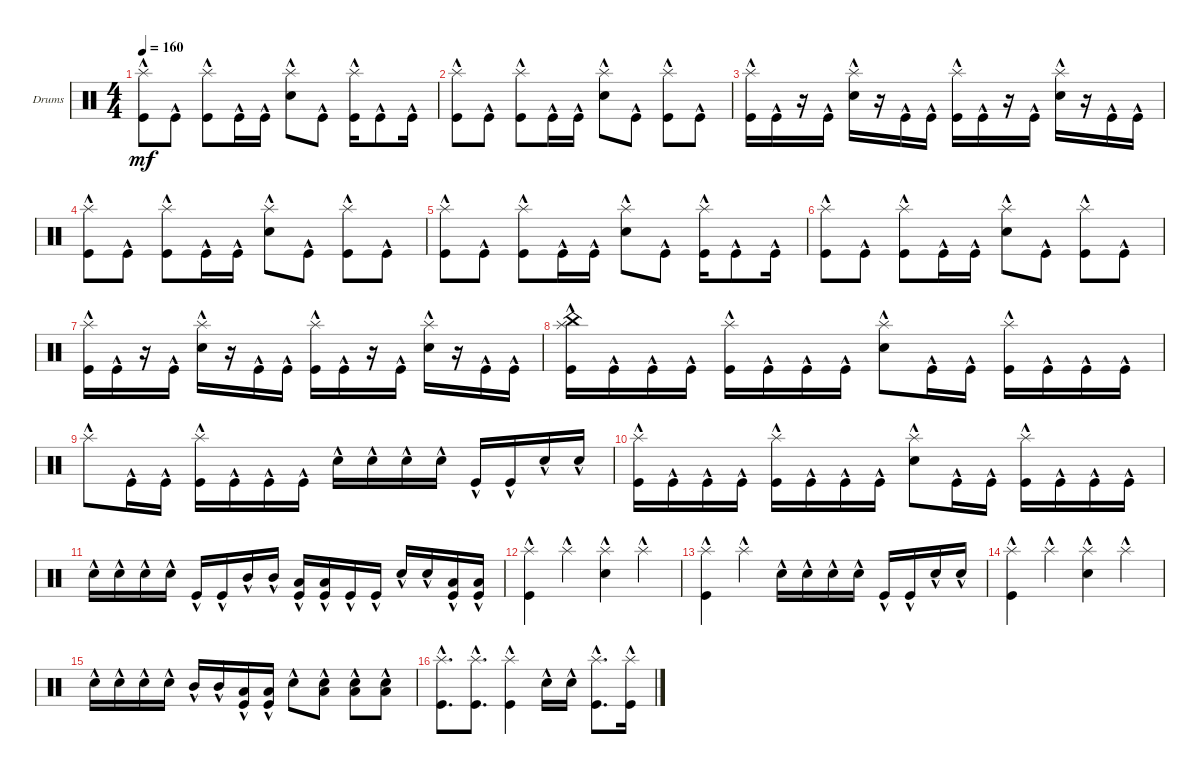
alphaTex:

\defaultSystemsLayout 4
\bracketExtendMode groupsimilarinstruments
\firstSystemTrackNameOrientation horizontal
\otherSystemsTrackNameOrientation horizontal
\track ("Drums" "Drums") {instrument percussion}
\staff {score}
\articulation defaults
\ts (4 4)
\tempo 160
\clef neutral
\ks c
("Kick (hit)"{hac} "Splash (hit)"{hac}).8{dy mf} "Kick (hit)"{hac}.8 ("Kick (hit)"{hac} "Splash (hit)"{hac}).8 "Kick (hit)"{hac}.16 "Kick (hit)"{hac}.16 ("Snare (hit) 2"{hac} "Splash (hit)"{hac}).8 "Kick (hit)"{hac}.8 ("Kick (hit)"{hac} "Splash (hit)"{hac}).16 "Kick (hit)"{hac}.8 "Kick (hit)"{hac}.16 |
("Kick (hit)"{hac} "Splash (hit)"{hac}).8 "Kick (hit)"{hac}.8 ("Kick (hit)"{hac} "Splash (hit)"{hac}).8 "Kick (hit)"{hac}.16 "Kick (hit)"{hac}.16 ("Snare (hit) 2"{hac} "Splash (hit)"{hac}).8 "Kick (hit)"{hac}.8 ("Kick (hit)"{hac} "Splash (hit)"{hac}).8 "Kick (hit)"{hac}.8 |
("Kick (hit)"{hac} "Splash (hit)"{hac}).16 "Kick (hit)"{hac}.16 r.16 "Kick (hit)"{hac}.16 ("Snare (hit) 2"{hac} "Splash (hit)"{hac}).16 r.16 "Kick (hit)"{hac}.16 "Kick (hit)"{hac}.16 ("Kick (hit)"{hac} "Splash (hit)"{hac}).16 "Kick (hit)"{hac}.16 r.16 "Kick (hit)"{hac}.16 ("Snare (hit) 2"{hac} "Splash (hit)"{hac}).16 r.16 "Kick (hit)"{hac}.16 "Kick (hit)"{hac}.16 |
("Kick (hit)"{hac} "Splash (hit)"{hac}).8 "Kick (hit)"{hac}.8 ("Kick (hit)"{hac} "Splash (hit)"{hac}).8 "Kick (hit)"{hac}.16 "Kick (hit)"{hac}.16 ("Snare (hit) 2"{hac} "Splash (hit)"{hac}).8 "Kick (hit)"{hac}.8 ("Kick (hit)"{hac} "Splash (hit)"{hac}).8 "Kick (hit)"{hac}.8 |
("Kick (hit)"{hac} "Splash (hit)"{hac}).8 "Kick (hit)"{hac}.8 ("Kick (hit)"{hac} "Splash (hit)"{hac}).8 "Kick (hit)"{hac}.16 "Kick (hit)"{hac}.16 ("Snare (hit) 2"{hac} "Splash (hit)"{hac}).8 "Kick (hit)"{hac}.8 ("Kick (hit)"{hac} "Splash (hit)"{hac}).16 "Kick (hit)"{hac}.8 "Kick (hit)"{hac}.16 |
("Kick (hit)"{hac} "Splash (hit)"{hac}).8 "Kick (hit)"{hac}.8 ("Kick (hit)"{hac} "Splash (hit)"{hac}).8 "Kick (hit)"{hac}.16 "Kick (hit)"{hac}.16 ("Snare (hit) 2"{hac} "Splash (hit)"{hac}).8 "Kick (hit)"{hac}.8 ("Kick (hit)"{hac} "Splash (hit)"{hac}).8 "Kick (hit)"{hac}.8 |
("Kick (hit)"{hac} "Splash (hit)"{hac}).16 "Kick (hit)"{hac}.16 r.16 "Kick (hit)"{hac}.16 ("Snare (hit) 2"{hac} "Splash (hit)"{hac}).16 r.16 "Kick (hit)"{hac}.16 "Kick (hit)"{hac}.16 ("Kick (hit)"{hac} "Splash (hit)"{hac}).16 "Kick (hit)"{hac}.16 r.16 "Kick (hit)"{hac}.16 ("Snare (hit) 2"{hac} "Splash (hit)"{hac}).16 r.16 "Kick (hit)"{hac}.16 "Kick (hit)"{hac}.16 |
("Kick (hit)"{hac} "Splash (hit)"{hac} "China (hit)"{hac}).16 "Kick (hit)"{hac}.16 "Kick (hit)"{hac}.16 "Kick (hit)"{hac}.16 ("Kick (hit)"{hac} "Splash (hit)"{hac}).16 "Kick (hit)"{hac}.16 "Kick (hit)"{hac}.16 "Kick (hit)"{hac}.16 ("Snare (hit) 2"{hac} "Splash (hit)"{hac}).8 "Kick (hit)"{hac}.16 "Kick (hit)"{hac}.16 ("Kick (hit)"{hac} "Splash (hit)"{hac}).16 "Kick (hit)"{hac}.16 "Kick (hit)"{hac}.16 "Kick (hit)"{hac}.16 |
"Splash (hit)"{hac}.8 "Kick (hit)"{hac}.16 "Kick (hit)"{hac}.16 ("Kick (hit)"{hac} "Splash (hit)"{hac}).16 "Kick (hit)"{hac}.16 "Kick (hit)"{hac}.16 "Kick (hit)"{hac}.16 "Snare (hit) 2"{hac}.16 "Snare (hit) 2"{hac}.16 "Snare (hit) 2"{hac}.16 "Snare (hit) 2"{hac}.16 "Kick (hit)"{hac}.16 "Kick (hit)"{hac}.16 "Snare (hit) 2"{hac}.16 "Snare (hit) 2"{hac}.16 |
("Kick (hit)"{hac} "Splash (hit)"{hac}).16 "Kick (hit)"{hac}.16 "Kick (hit)"{hac}.16 "Kick (hit)"{hac}.16 ("Kick (hit)"{hac} "Splash (hit)"{hac}).16 "Kick (hit)"{hac}.16 "Kick (hit)"{hac}.16 "Kick (hit)"{hac}.16 ("Snare (hit) 2"{hac} "Splash (hit)"{hac}).8 "Kick (hit)"{hac}.16 "Kick (hit)"{hac}.16 ("Kick (hit)"{hac} "Splash (hit)"{hac}).16 "Kick (hit)"{hac}.16 "Kick (hit)"{hac}.16 "Kick (hit)"{hac}.16 |
"Snare (hit) 2"{hac}.16 "Snare (hit) 2"{hac}.16 "Snare (hit) 2"{hac}.16 "Snare (hit) 2"{hac}.16 "Kick (hit)"{hac}.16 "Kick (hit)"{hac}.16 "Mid Tom (hit)"{hac}.16 "Mid Tom (hit)"{hac}.16 ("Low Tom (hit)"{hac} "Kick (hit)").16 ("Low Tom (hit)"{hac} "Kick (hit)").16 "Kick (hit)"{hac}.16 "Kick (hit)"{hac}.16 "Snare (hit) 2"{hac}.16 "Snare (hit) 2"{hac}.16 ("Low Tom (hit)"{hac} "Kick (hit)").16 ("Low Tom (hit)"{hac} "Kick (hit)").16 |
("Kick (hit)"{hac} "Splash (hit)"{hac}).4 "Splash (hit)"{hac}.4 ("Splash (hit)"{hac} "Snare (hit) 2"{hac}).4 "Splash (hit)"{hac}.4 |
("Kick (hit)"{hac} "Splash (hit)"{hac}).4 "Splash (hit)"{hac}.4 "Snare (hit) 2"{hac}.16 "Snare (hit) 2"{hac}.16 "Snare (hit) 2"{hac}.16 "Snare (hit) 2"{hac}.16 "Kick (hit)"{hac}.16 "Kick (hit)"{hac}.16 "Snare (hit) 2"{hac}.16 "Snare (hit) 2"{hac}.16 |
("Kick (hit)"{hac} "Splash (hit)"{hac}).4 "Splash (hit)"{hac}.4 ("Splash (hit)"{hac} "Snare (hit) 2"{hac}).4 "Splash (hit)"{hac}.4 |
"Snare (hit) 2"{hac}.16 "Snare (hit) 2"{hac}.16 "Snare (hit) 2"{hac}.16 "Snare (hit) 2"{hac}.16 "Mid Tom (hit)"{hac}.16 "Mid Tom (hit)"{hac}.16 ("Low Tom (hit)"{hac} "Kick (hit)").16 ("Low Tom (hit)"{hac} "Kick (hit)").16 "Snare (hit) 2"{hac}.8 ("Snare (hit) 2"{hac} "Low Tom (hit)"{hac}).8 ("Snare (hit) 2"{hac} "Low Tom (hit)"{hac}).8 ("Snare (hit) 2"{hac} "Low Tom (hit)"{hac}).8 |
("Kick (hit)"{hac} "Splash (hit)"{hac}).8{d} ("Kick (hit)"{hac} "Splash (hit)"{hac}).8{d} ("Kick (hit)"{hac} "Splash (hit)"{hac}).4 "Snare (hit) 2"{hac}.16 "Snare (hit) 2"{hac}.16 ("Kick (hit)"{hac} "Splash (hit)"{hac}).8{d} ("Kick (hit)"{hac} "Splash (hit)"{hac}).16
